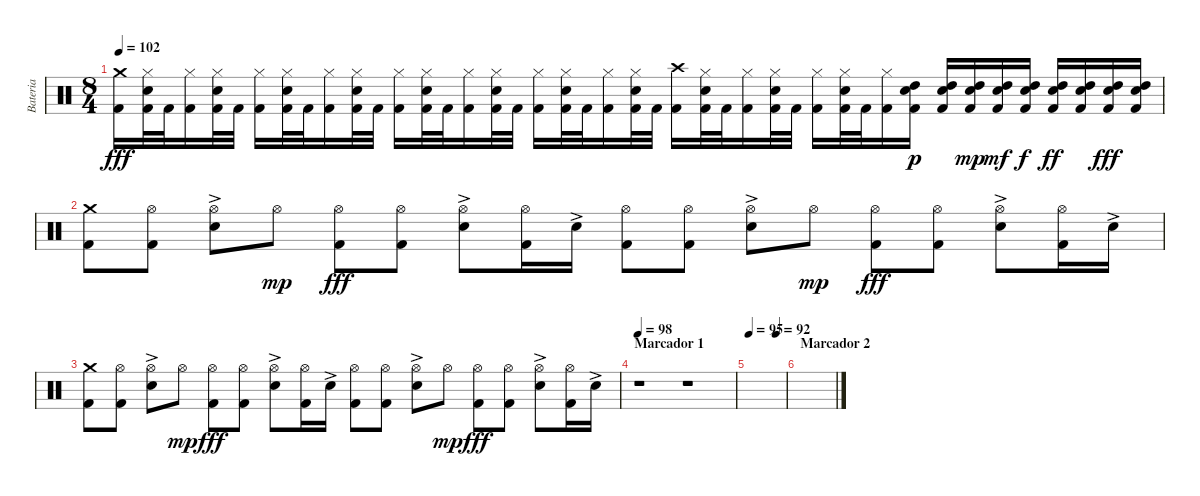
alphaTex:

\track ("Bateria" "Bateria") {instrument percussion}
\staff {score}
\articulation defaults
\ts (8 4)
\tempo 102
\clef neutral
\ks c
("Crash medium (hit)" "Kick (hit) 2").16{dy fff} ("Hi-Hat (closed)" "Electric Snare (hit)" "Kick (hit) 2").32 "Kick (hit) 2".32 ("Hi-Hat (closed)" "Kick (hit) 2").16 ("Hi-Hat (closed)" "Electric Snare (hit)" "Kick (hit) 2").32 "Kick (hit) 2".32 ("Hi-Hat (closed)" "Kick (hit) 2").16 ("Hi-Hat (closed)" "Electric Snare (hit)" "Kick (hit) 2").32 "Kick (hit) 2".32 ("Hi-Hat (closed)" "Kick (hit) 2").16 ("Hi-Hat (closed)" "Electric Snare (hit)" "Kick (hit) 2").32 "Kick (hit) 2".32 ("Hi-Hat (closed)" "Kick (hit) 2").16 ("Hi-Hat (closed)" "Electric Snare (hit)" "Kick (hit) 2").32 "Kick (hit) 2".32 ("Hi-Hat (closed)" "Kick (hit) 2").16 ("Hi-Hat (closed)" "Electric Snare (hit)" "Kick (hit) 2").32 "Kick (hit) 2".32 ("Hi-Hat (closed)" "Kick (hit) 2").16 ("Hi-Hat (closed)" "Electric Snare (hit)" "Kick (hit) 2").32 "Kick (hit) 2".32 ("Hi-Hat (closed)" "Kick (hit) 2").16 ("Hi-Hat (closed)" "Electric Snare (hit)" "Kick (hit) 2").32 "Kick (hit) 2".32 ("Crash high (hit)" "Kick (hit) 2").16 ("Hi-Hat (closed)" "Electric Snare (hit)" "Kick (hit) 2").32 "Kick (hit) 2".32 ("Hi-Hat (closed)" "Kick (hit) 2").16 ("Hi-Hat (closed)" "Electric Snare (hit)" "Kick (hit) 2").32 "Kick (hit) 2".32 ("Hi-Hat (closed)" "Kick (hit) 2").16 ("Hi-Hat (closed)" "Electric Snare (hit)" "Kick (hit) 2").32 "Kick (hit) 2".32 ("Hi-Hat (closed)" "Kick (hit) 2").16 ("High Tom (hit)" "Electric Snare (hit)" "Kick (hit) 2").16{dy p} ("High Tom (hit)" "Electric Snare (hit)" "Kick (hit) 2").16 ("High Tom (hit)" "Electric Snare (hit)" "Kick (hit) 2").16{dy mp} ("High Tom (hit)" "Electric Snare (hit)" "Kick (hit) 2").16{dy mf} ("High Tom (hit)" "Electric Snare (hit)" "Kick (hit) 2").16{dy f} ("High Tom (hit)" "Electric Snare (hit)" "Kick (hit) 2").16{dy ff} ("High Tom (hit)" "Electric Snare (hit)" "Kick (hit) 2").16 ("High Tom (hit)" "Electric Snare (hit)" "Kick (hit) 2").16{dy fff} ("High Tom (hit)" "Electric Snare (hit)" "Kick (hit) 2").16 |
("Crash medium (hit)" "Kick (hit) 2").8 ("Hi-Hat (open)" "Kick (hit) 2").8 ("Hi-Hat (open)" "Electric Snare (hit)"{ac}).8 "Hi-Hat (open)".8{dy mp} ("Hi-Hat (open)" "Kick (hit) 2").8{dy fff} ("Hi-Hat (open)" "Kick (hit) 2").8 ("Hi-Hat (open)" "Electric Snare (hit)"{ac}).8 ("Hi-Hat (open)" "Kick (hit) 2").16 "Electric Snare (hit)"{ac}.16 ("Hi-Hat (open)" "Kick (hit) 2").8 ("Hi-Hat (open)" "Kick (hit) 2").8 ("Hi-Hat (open)" "Electric Snare (hit)"{ac}).8 "Hi-Hat (open)".8{dy mp} ("Hi-Hat (open)" "Kick (hit) 2").8{dy fff} ("Hi-Hat (open)" "Kick (hit) 2").8 ("Hi-Hat (open)" "Electric Snare (hit)"{ac}).8 ("Hi-Hat (open)" "Kick (hit) 2").16 "Electric Snare (hit)"{ac}.16 |
("Crash medium (hit)" "Kick (hit) 2").8 ("Hi-Hat (open)" "Kick (hit) 2").8 ("Hi-Hat (open)" "Electric Snare (hit)"{ac}).8 "Hi-Hat (open)".8{dy mp} ("Hi-Hat (open)" "Kick (hit) 2").8{dy fff} ("Hi-Hat (open)" "Kick (hit) 2").8 ("Hi-Hat (open)" "Electric Snare (hit)"{ac}).8 ("Hi-Hat (open)" "Kick (hit) 2").16 "Electric Snare (hit)"{ac}.16 ("Hi-Hat (open)" "Kick (hit) 2").8 ("Hi-Hat (open)" "Kick (hit) 2").8 ("Hi-Hat (open)" "Electric Snare (hit)"{ac}).8 "Hi-Hat (open)".8{dy mp} ("Hi-Hat (open)" "Kick (hit) 2").8{dy fff} ("Hi-Hat (open)" "Kick (hit) 2").8 ("Hi-Hat (open)" "Electric Snare (hit)"{ac}).8 ("Hi-Hat (open)" "Kick (hit) 2").16 "Electric Snare (hit)"{ac}.16 |
\section ("" "Marcador 1")
\tempo 98
r.1 r.1 |
\tempo 95
\tempo (92 0.75)
|
\section ("" "Marcador 2")
